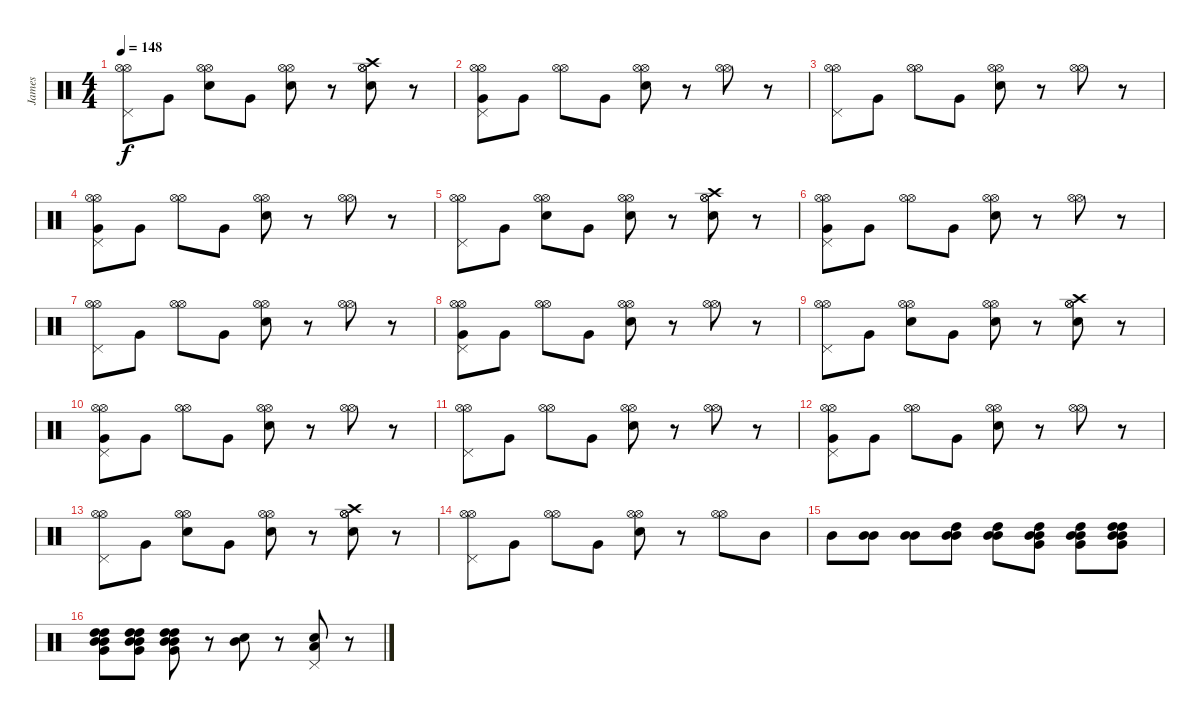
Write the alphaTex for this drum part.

\track ("James" "James") {instrument percussion}
\staff {score}
\articulation defaults
\ts (4 4)
\tempo 148
\clef neutral
\ks c
("Hi-Hat (open)" "Pedal Hi-Hat (hit)" "Hi-Hat (open)").8{dy f} "Very Low Tom (hit)".8 ("Hi-Hat (open)" "Electric Snare (hit)" "Hi-Hat (open)").8 "Very Low Tom (hit)".8 ("Hi-Hat (open)" "Electric Snare (hit)" "Hi-Hat (open)").8 r.8 ("Hi-Hat (open)" "Crash high (hit)" "Electric Snare (hit)" "Hi-Hat (open)").8 r.8 |
("Hi-Hat (open)" "Pedal Hi-Hat (hit)" "Very Low Tom (hit)" "Hi-Hat (open)").8 "Very Low Tom (hit)".8 ("Hi-Hat (open)" "Hi-Hat (open)").8 "Very Low Tom (hit)".8 ("Hi-Hat (open)" "Electric Snare (hit)" "Hi-Hat (open)").8 r.8 ("Hi-Hat (open)" "Hi-Hat (open)").8 r.8 |
("Hi-Hat (open)" "Pedal Hi-Hat (hit)" "Hi-Hat (open)").8 "Very Low Tom (hit)".8 ("Hi-Hat (open)" "Hi-Hat (open)").8 "Very Low Tom (hit)".8 ("Hi-Hat (open)" "Electric Snare (hit)" "Hi-Hat (open)").8 r.8 ("Hi-Hat (open)" "Hi-Hat (open)").8 r.8 |
("Hi-Hat (open)" "Pedal Hi-Hat (hit)" "Very Low Tom (hit)" "Hi-Hat (open)").8 "Very Low Tom (hit)".8 ("Hi-Hat (open)" "Hi-Hat (open)").8 "Very Low Tom (hit)".8 ("Hi-Hat (open)" "Electric Snare (hit)" "Hi-Hat (open)").8 r.8 ("Hi-Hat (open)" "Hi-Hat (open)").8 r.8 |
("Hi-Hat (open)" "Pedal Hi-Hat (hit)" "Hi-Hat (open)").8 "Very Low Tom (hit)".8 ("Hi-Hat (open)" "Electric Snare (hit)" "Hi-Hat (open)").8 "Very Low Tom (hit)".8 ("Hi-Hat (open)" "Electric Snare (hit)" "Hi-Hat (open)").8 r.8 ("Hi-Hat (open)" "Crash high (hit)" "Electric Snare (hit)" "Hi-Hat (open)").8 r.8 |
("Hi-Hat (open)" "Pedal Hi-Hat (hit)" "Very Low Tom (hit)" "Hi-Hat (open)").8 "Very Low Tom (hit)".8 ("Hi-Hat (open)" "Hi-Hat (open)").8 "Very Low Tom (hit)".8 ("Hi-Hat (open)" "Electric Snare (hit)" "Hi-Hat (open)").8 r.8 ("Hi-Hat (open)" "Hi-Hat (open)").8 r.8 |
("Hi-Hat (open)" "Pedal Hi-Hat (hit)" "Hi-Hat (open)").8 "Very Low Tom (hit)".8 ("Hi-Hat (open)" "Hi-Hat (open)").8 "Very Low Tom (hit)".8 ("Hi-Hat (open)" "Electric Snare (hit)" "Hi-Hat (open)").8 r.8 ("Hi-Hat (open)" "Hi-Hat (open)").8 r.8 |
("Hi-Hat (open)" "Pedal Hi-Hat (hit)" "Very Low Tom (hit)" "Hi-Hat (open)").8 "Very Low Tom (hit)".8 ("Hi-Hat (open)" "Hi-Hat (open)").8 "Very Low Tom (hit)".8 ("Hi-Hat (open)" "Electric Snare (hit)" "Hi-Hat (open)").8 r.8 ("Hi-Hat (open)" "Hi-Hat (open)").8 r.8 |
("Hi-Hat (open)" "Pedal Hi-Hat (hit)" "Hi-Hat (open)").8 "Very Low Tom (hit)".8 ("Hi-Hat (open)" "Electric Snare (hit)" "Hi-Hat (open)").8 "Very Low Tom (hit)".8 ("Hi-Hat (open)" "Electric Snare (hit)" "Hi-Hat (open)").8 r.8 ("Hi-Hat (open)" "Crash high (hit)" "Electric Snare (hit)" "Hi-Hat (open)").8 r.8 |
("Hi-Hat (open)" "Pedal Hi-Hat (hit)" "Very Low Tom (hit)" "Hi-Hat (open)").8 "Very Low Tom (hit)".8 ("Hi-Hat (open)" "Hi-Hat (open)").8 "Very Low Tom (hit)".8 ("Hi-Hat (open)" "Electric Snare (hit)" "Hi-Hat (open)").8 r.8 ("Hi-Hat (open)" "Hi-Hat (open)").8 r.8 |
("Hi-Hat (open)" "Pedal Hi-Hat (hit)" "Hi-Hat (open)").8 "Very Low Tom (hit)".8 ("Hi-Hat (open)" "Hi-Hat (open)").8 "Very Low Tom (hit)".8 ("Hi-Hat (open)" "Electric Snare (hit)" "Hi-Hat (open)").8 r.8 ("Hi-Hat (open)" "Hi-Hat (open)").8 r.8 |
("Hi-Hat (open)" "Pedal Hi-Hat (hit)" "Very Low Tom (hit)" "Hi-Hat (open)").8 "Very Low Tom (hit)".8 ("Hi-Hat (open)" "Hi-Hat (open)").8 "Very Low Tom (hit)".8 ("Hi-Hat (open)" "Electric Snare (hit)" "Hi-Hat (open)").8 r.8 ("Hi-Hat (open)" "Hi-Hat (open)").8 r.8 |
("Hi-Hat (open)" "Pedal Hi-Hat (hit)" "Hi-Hat (open)").8 "Very Low Tom (hit)".8 ("Hi-Hat (open)" "Electric Snare (hit)" "Hi-Hat (open)").8 "Very Low Tom (hit)".8 ("Hi-Hat (open)" "Electric Snare (hit)" "Hi-Hat (open)").8 r.8 ("Hi-Hat (open)" "Crash high (hit)" "Electric Snare (hit)" "Hi-Hat (open)").8 r.8 |
("Hi-Hat (open)" "Pedal Hi-Hat (hit)" "Hi-Hat (open)").8 "Very Low Tom (hit)".8 ("Hi-Hat (open)" "Hi-Hat (open)").8 "Very Low Tom (hit)".8 ("Hi-Hat (open)" "Electric Snare (hit)" "Hi-Hat (open)").8 r.8 ("Hi-Hat (open)" "Hi-Hat (open)").8 "Mid Tom (hit)".8 |
"Mid Tom (hit)".8 ("Mid Tom (hit)" "Mid Tom (hit)").8 ("Mid Tom (hit)" "Mid Tom (hit)").8 ("Mid Tom (hit)" "Mid Tom (hit)" "High Tom (hit)").8 ("Mid Tom (hit)" "Mid Tom (hit)" "High Tom (hit)").8 ("Mid Tom (hit)" "Mid Tom (hit)" "High Tom (hit)" "Very Low Tom (hit)").8 ("Mid Tom (hit)" "Mid Tom (hit)" "High Tom (hit)" "Very Low Tom (hit)").8 ("Mid Tom (hit)" "Mid Tom (hit)" "High Tom (hit)" "Very Low Tom (hit)" "High Tom (hit)").8 |
("Mid Tom (hit)" "Mid Tom (hit)" "High Tom (hit)" "Very Low Tom (hit)" "High Tom (hit)").8 ("Mid Tom (hit)" "Mid Tom (hit)" "High Tom (hit)" "Very Low Tom (hit)" "High Tom (hit)").8 ("Mid Tom (hit)" "Mid Tom (hit)" "High Tom (hit)" "Very Low Tom (hit)" "High Tom (hit)").8 r.8 ("Mid Tom (hit)" "Electric Snare (hit)").8 r.8 ("Low Floor Tom (hit)" "Pedal Hi-Hat (hit)" "Electric Snare (hit)").8 r.8
